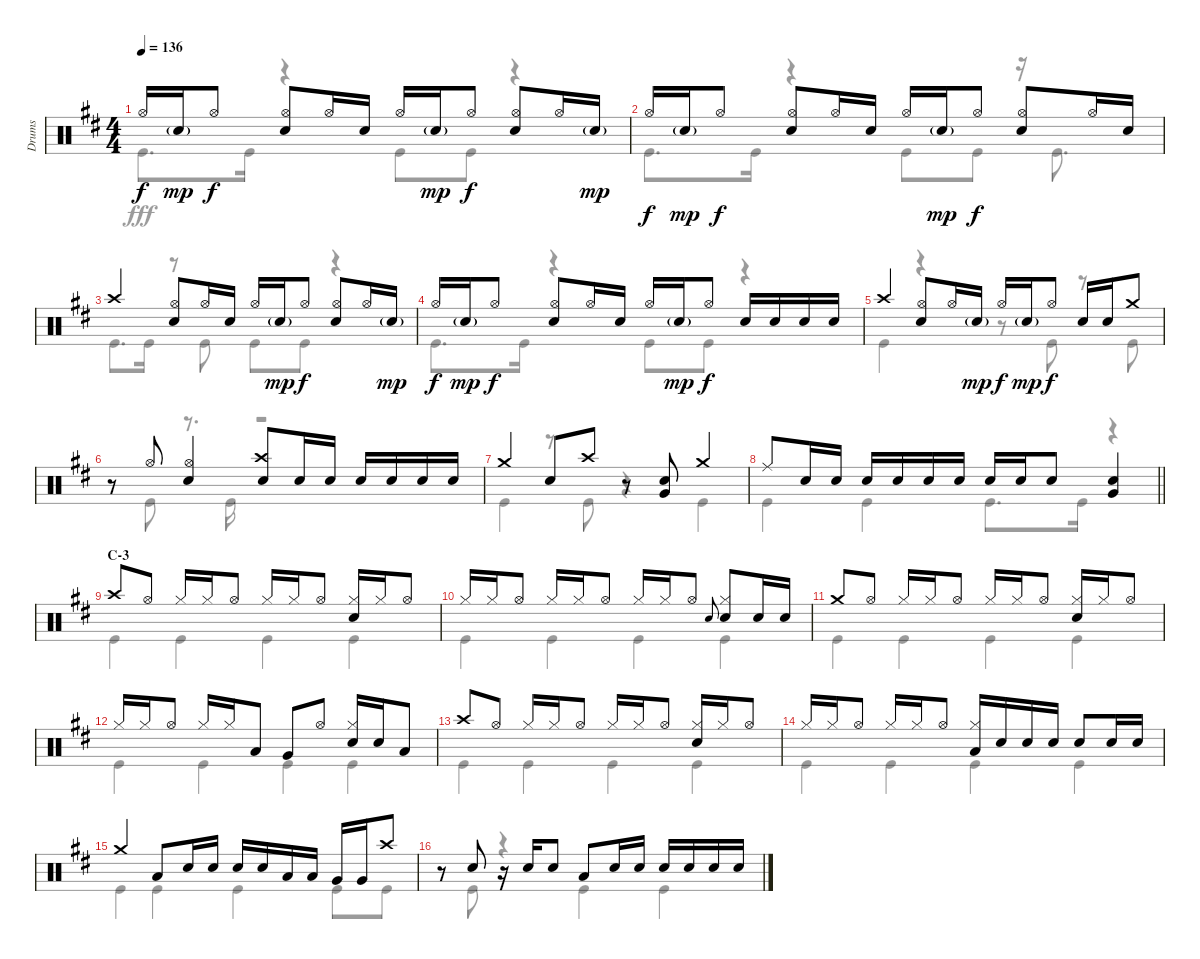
\track ("Drums" "Drums") {instrument percussion}
\staff {score}
\articulation defaults
\voice
\ts (4 4)
\tempo 136
\clef neutral
\ks d "Hi-Hat (open)".16{dy f} "Snare (hit) 2"{g}.16{dy mp} "Hi-Hat (open)".8{dy f}
("Hi-Hat (open)" "Snare (hit) 2").8 "Hi-Hat (open)".16 "Snare (hit) 2".16 "Hi-Hat (open)".16 "Snare (hit) 2"{g}.16{dy mp} "Hi-Hat (open)".8{dy f} ("Hi-Hat (open)" "Snare (hit) 2").8 "Hi-Hat (open)".16 "Snare (hit) 2"{g}.16{dy mp} |
"Hi-Hat (open)".16{dy f} "Snare (hit) 2"{g}.16{dy mp} "Hi-Hat (open)".8{dy f} ("Hi-Hat (open)" "Snare (hit) 2").8 "Hi-Hat (open)".16 "Snare (hit) 2".16 "Hi-Hat (open)".16 "Snare (hit) 2"{g}.16{dy mp} "Hi-Hat (open)".8{dy f} ("Hi-Hat (open)" "Snare (hit) 2").8 "Hi-Hat (open)".16 "Snare (hit) 2".16 |
"Crash high (hit)".4 ("Hi-Hat (open)" "Snare (hit) 2").8 "Hi-Hat (open)".16 "Snare (hit) 2".16 "Hi-Hat (open)".16 "Snare (hit) 2"{g}.16{dy mp} "Hi-Hat (open)".8{dy f} ("Hi-Hat (open)" "Snare (hit) 2").8 "Hi-Hat (open)".16 "Snare (hit) 2"{g}.16{dy mp} |
"Hi-Hat (open)".16{dy f} "Snare (hit) 2"{g}.16{dy mp} "Hi-Hat (open)".8{dy f} ("Hi-Hat (open)" "Snare (hit) 2").8 "Hi-Hat (open)".16 "Snare (hit) 2".16 "Hi-Hat (open)".16 "Snare (hit) 2"{g}.16{dy mp} "Hi-Hat (open)".8{dy f} "Snare (hit) 2".16 "Snare (hit) 2".16 "Snare (hit) 2".16 "Snare (hit) 2".16 |
"Crash high (hit)".4 ("Hi-Hat (open)" "Snare (hit) 2").8 "Hi-Hat (open)".16 "Snare (hit) 2"{g}.16{dy mp} "Hi-Hat (open)".16{dy f} "Snare (hit) 2"{g}.16{dy mp} "Hi-Hat (open)".8{dy f} "Snare (hit) 2".16 "Snare (hit) 2".16 "Crash medium (hit)".8 |
r.8 "Hi-Hat (open)".8 ("Hi-Hat (open)" "Snare (hit) 2").4 ("Crash high (hit)" "Snare (hit) 2").8 "Snare (hit) 2".16 "Snare (hit) 2".16 "Snare (hit) 2".16 "Snare (hit) 2".16 "Snare (hit) 2".16 "Snare (hit) 2".16 |
"Crash medium (hit)".4 "Snare (hit) 2".8 "Crash high (hit)".8 r.8 ("Snare (hit) 2" "Very Low Tom (hit)").8 "Crash medium (hit)".4 |
\barLineRight lightlight "Ride (middle)".8 "Snare (hit) 2".16 "Snare (hit) 2".16 "Snare (hit) 2".16 "Snare (hit) 2".16 "Snare (hit) 2".16 "Snare (hit) 2".16 "Snare (hit) 2".16 "Snare (hit) 2".16 "Snare (hit) 2".8
("Snare (hit) 2" "Very Low Tom (hit)").4 |
\section ("" "C-3")
"Crash high (hit)".8 "Hi-Hat (open)".8 "Hi-Hat (closed)".16 "Hi-Hat (closed)".16 "Hi-Hat (open)".8 "Hi-Hat (closed)".16 "Hi-Hat (closed)".16 "Hi-Hat (open)".8 ("Hi-Hat (closed)" "Snare (hit) 2").16 "Hi-Hat (closed)".16 "Hi-Hat (open)".8 |
"Hi-Hat (closed)".16 "Hi-Hat (closed)".16 "Hi-Hat (open)".8 "Hi-Hat (closed)".16 "Hi-Hat (closed)".16 "Hi-Hat (open)".8 "Hi-Hat (closed)".16 "Hi-Hat (closed)".16 "Hi-Hat (open)".8 "Snare (hit) 2".8{gr onbeat} ("Hi-Hat (closed)" "Snare (hit) 2").8 "Snare (hit) 2".16 "Snare (hit) 2".16 |
"Crash medium (hit)".8 "Hi-Hat (open)".8 "Hi-Hat (closed)".16 "Hi-Hat (closed)".16 "Hi-Hat (open)".8 "Hi-Hat (closed)".16 "Hi-Hat (closed)".16 "Hi-Hat (open)".8 ("Hi-Hat (closed)" "Snare (hit) 2").16 "Hi-Hat (closed)".16 "Hi-Hat (open)".8 |
"Hi-Hat (closed)".16 "Hi-Hat (closed)".16 "Hi-Hat (open)".8 "Hi-Hat (closed)".16 "Hi-Hat (closed)".16 "Low Tom (hit)".8 "Very Low Tom (hit)".8 "Hi-Hat (open)".8 ("Hi-Hat (closed)" "Snare (hit) 2").16 "Snare (hit) 2".16 "Low Tom (hit)".8 |
"Crash high (hit)".8 "Hi-Hat (open)".8 "Hi-Hat (closed)".16 "Hi-Hat (closed)".16 "Hi-Hat (open)".8 "Hi-Hat (closed)".16 "Hi-Hat (closed)".16 "Hi-Hat (open)".8 ("Hi-Hat (closed)" "Snare (hit) 2").16 "Hi-Hat (closed)".16 "Hi-Hat (open)".8 |
"Hi-Hat (closed)".16 "Hi-Hat (closed)".16 "Hi-Hat (open)".8 "Hi-Hat (closed)".16 "Hi-Hat (closed)".16 "Hi-Hat (open)".8 ("Hi-Hat (closed)" "Low Tom (hit)").16 "Snare (hit) 2".16 "Snare (hit) 2".16 "Snare (hit) 2".16 "Snare (hit) 2".8 "Snare (hit) 2".16 "Snare (hit) 2".16 |
"Crash medium (hit)".4 "Low Tom (hit)".8 "Snare (hit) 2".16 "Snare (hit) 2".16 "Snare (hit) 2".16 "Snare (hit) 2".16 "Low Tom (hit)".16 "Low Tom (hit)".16 "Very Low Tom (hit)".16 "Very Low Tom (hit)".16 "Crash high (hit)".8 |
r.8 "Snare (hit) 2".8 r.16 "Snare (hit) 2".16 "Snare (hit) 2".8 "Low Tom (hit)".8 "Snare (hit) 2".16 "Snare (hit) 2".16 "Snare (hit) 2".16 "Snare (hit) 2".16 "Snare (hit) 2".16 "Snare (hit) 2".16
\voice
\clef neutral
\ottava regular
\simile none
\ks d "Kick (hit)".8{d dy fff} "Kick (hit)".16
r.4 "Kick (hit)".8 "Kick (hit)".8 r.4 |
"Kick (hit)".8{d} "Kick (hit)".16 r.4 "Kick (hit)".8 "Kick (hit)".8 r.16 "Kick (hit)".8{d} |
"Kick (hit)".8{d} "Kick (hit)".16 r.8 "Kick (hit)".8 "Kick (hit)".8 "Kick (hit)".8 r.4 |
"Kick (hit)".8{d} "Kick (hit)".16 r.4 "Kick (hit)".8 "Kick (hit)".8 r.4 |
"Kick (hit)".4 r.4 r.8 "Kick (hit)".8 r.8 "Kick (hit)".8 |
r.8 "Kick (hit)".8 r.8{d} "Kick (hit)".16 r.2 |
"Kick (hit)".4 r.8 "Kick (hit)".8 r.4 "Kick (hit)".4 |
\barLineRight lightlight "Kick (hit)".4 "Kick (hit)".4 "Kick (hit)".8{d} "Kick (hit)".16
r.4 |
"Kick (hit)".4 "Kick (hit)".4 "Kick (hit)".4 "Kick (hit)".4 |
"Kick (hit)".4 "Kick (hit)".4 "Kick (hit)".4 "Kick (hit)".4 |
"Kick (hit)".4 "Kick (hit)".4 "Kick (hit)".4 "Kick (hit)".4 |
"Kick (hit)".4 "Kick (hit)".4 "Kick (hit)".4 "Kick (hit)".4 |
"Kick (hit)".4 "Kick (hit)".4 "Kick (hit)".4 "Kick (hit)".4 |
"Kick (hit)".4 "Kick (hit)".4 "Kick (hit)".4 "Kick (hit)".4 |
"Kick (hit)".4 "Kick (hit)".4 "Kick (hit)".4 "Kick (hit)".8 "Kick (hit)".8 |
r.8 "Kick (hit)".8 r.4 "Kick (hit)".4 "Kick (hit)".4
